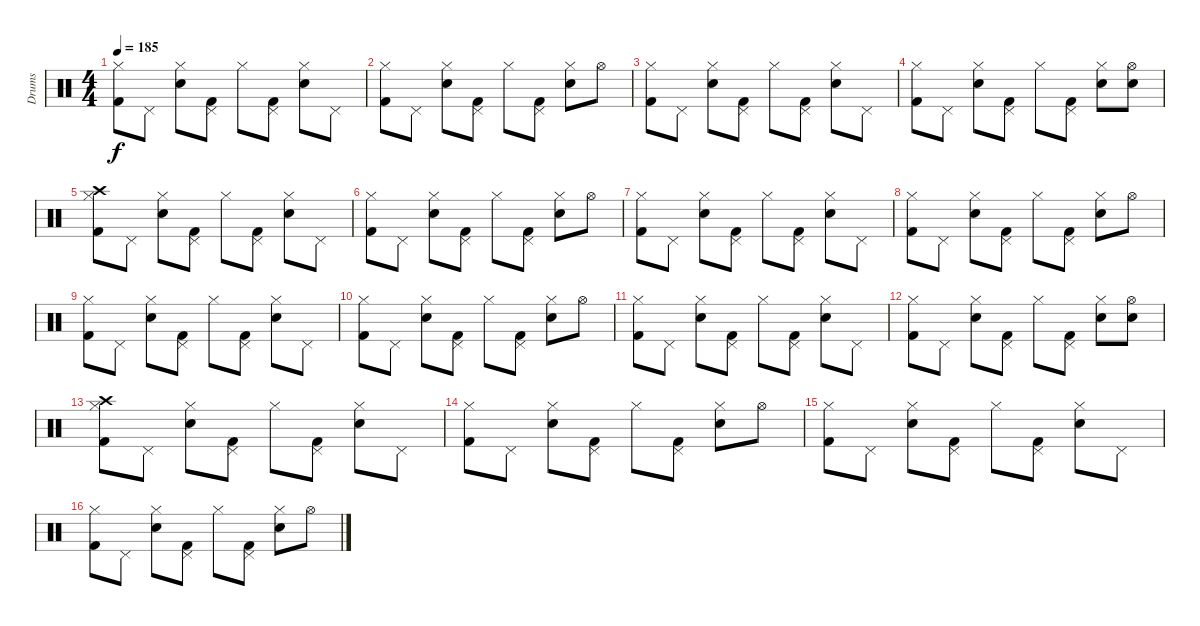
\track ("Drums" "Drums") {instrument percussion}
\staff {score}
\articulation defaults
\ts (4 4)
\tempo 185
\clef neutral
\ks c
("Kick (hit) 2" "Hi-Hat (closed)").8{dy f} "Pedal Hi-Hat (hit)".8 ("Electric Snare (hit)" "Hi-Hat (closed)").8 ("Kick (hit) 2" "Pedal Hi-Hat (hit)").8 "Hi-Hat (closed)".8 ("Kick (hit) 2" "Pedal Hi-Hat (hit)").8 ("Electric Snare (hit)" "Hi-Hat (closed)").8 "Pedal Hi-Hat (hit)".8 |
("Kick (hit) 2" "Hi-Hat (closed)").8 "Pedal Hi-Hat (hit)".8 ("Electric Snare (hit)" "Hi-Hat (closed)").8 ("Kick (hit) 2" "Pedal Hi-Hat (hit)").8 "Hi-Hat (closed)".8 ("Kick (hit) 2" "Pedal Hi-Hat (hit)").8 ("Electric Snare (hit)" "Hi-Hat (closed)").8 "Hi-Hat (open)".8 |
("Kick (hit) 2" "Hi-Hat (closed)").8 "Pedal Hi-Hat (hit)".8 ("Electric Snare (hit)" "Hi-Hat (closed)").8 ("Kick (hit) 2" "Pedal Hi-Hat (hit)").8 "Hi-Hat (closed)".8 ("Kick (hit) 2" "Pedal Hi-Hat (hit)").8 ("Electric Snare (hit)" "Hi-Hat (closed)").8 "Pedal Hi-Hat (hit)".8 |
("Kick (hit) 2" "Hi-Hat (closed)").8 "Pedal Hi-Hat (hit)".8 ("Electric Snare (hit)" "Hi-Hat (closed)").8 ("Kick (hit) 2" "Pedal Hi-Hat (hit)").8 "Hi-Hat (closed)".8 ("Kick (hit) 2" "Pedal Hi-Hat (hit)").8 ("Electric Snare (hit)" "Hi-Hat (closed)").8 ("Electric Snare (hit)" "Hi-Hat (open)").8 |
("Kick (hit) 2" "Crash high (hit)" "Hi-Hat (closed)").8 "Pedal Hi-Hat (hit)".8 ("Electric Snare (hit)" "Hi-Hat (closed)").8 ("Kick (hit) 2" "Pedal Hi-Hat (hit)").8 "Hi-Hat (closed)".8 ("Kick (hit) 2" "Pedal Hi-Hat (hit)").8 ("Electric Snare (hit)" "Hi-Hat (closed)").8 "Pedal Hi-Hat (hit)".8 |
("Kick (hit) 2" "Hi-Hat (closed)").8 "Pedal Hi-Hat (hit)".8 ("Electric Snare (hit)" "Hi-Hat (closed)").8 ("Kick (hit) 2" "Pedal Hi-Hat (hit)").8 "Hi-Hat (closed)".8 ("Kick (hit) 2" "Pedal Hi-Hat (hit)").8 ("Electric Snare (hit)" "Hi-Hat (closed)").8 "Hi-Hat (open)".8 |
("Kick (hit) 2" "Hi-Hat (closed)").8 "Pedal Hi-Hat (hit)".8 ("Electric Snare (hit)" "Hi-Hat (closed)").8 ("Kick (hit) 2" "Pedal Hi-Hat (hit)").8 "Hi-Hat (closed)".8 ("Kick (hit) 2" "Pedal Hi-Hat (hit)").8 ("Electric Snare (hit)" "Hi-Hat (closed)").8 "Pedal Hi-Hat (hit)".8 |
("Kick (hit) 2" "Hi-Hat (closed)").8 "Pedal Hi-Hat (hit)".8 ("Electric Snare (hit)" "Hi-Hat (closed)").8 ("Kick (hit) 2" "Pedal Hi-Hat (hit)").8 "Hi-Hat (closed)".8 ("Kick (hit) 2" "Pedal Hi-Hat (hit)").8 ("Electric Snare (hit)" "Hi-Hat (closed)").8 "Hi-Hat (open)".8 |
("Kick (hit) 2" "Hi-Hat (closed)").8 "Pedal Hi-Hat (hit)".8 ("Electric Snare (hit)" "Hi-Hat (closed)").8 ("Kick (hit) 2" "Pedal Hi-Hat (hit)").8 "Hi-Hat (closed)".8 ("Kick (hit) 2" "Pedal Hi-Hat (hit)").8 ("Electric Snare (hit)" "Hi-Hat (closed)").8 "Pedal Hi-Hat (hit)".8 |
("Kick (hit) 2" "Hi-Hat (closed)").8 "Pedal Hi-Hat (hit)".8 ("Electric Snare (hit)" "Hi-Hat (closed)").8 ("Kick (hit) 2" "Pedal Hi-Hat (hit)").8 "Hi-Hat (closed)".8 ("Kick (hit) 2" "Pedal Hi-Hat (hit)").8 ("Electric Snare (hit)" "Hi-Hat (closed)").8 "Hi-Hat (open)".8 |
("Kick (hit) 2" "Hi-Hat (closed)").8 "Pedal Hi-Hat (hit)".8 ("Electric Snare (hit)" "Hi-Hat (closed)").8 ("Kick (hit) 2" "Pedal Hi-Hat (hit)").8 "Hi-Hat (closed)".8 ("Kick (hit) 2" "Pedal Hi-Hat (hit)").8 ("Electric Snare (hit)" "Hi-Hat (closed)").8 "Pedal Hi-Hat (hit)".8 |
("Kick (hit) 2" "Hi-Hat (closed)").8 "Pedal Hi-Hat (hit)".8 ("Electric Snare (hit)" "Hi-Hat (closed)").8 ("Kick (hit) 2" "Pedal Hi-Hat (hit)").8 "Hi-Hat (closed)".8 ("Kick (hit) 2" "Pedal Hi-Hat (hit)").8 ("Electric Snare (hit)" "Hi-Hat (closed)").8 ("Electric Snare (hit)" "Hi-Hat (open)").8 |
("Kick (hit) 2" "Crash high (hit)" "Hi-Hat (closed)").8 "Pedal Hi-Hat (hit)".8 ("Electric Snare (hit)" "Hi-Hat (closed)").8 ("Kick (hit) 2" "Pedal Hi-Hat (hit)").8 "Hi-Hat (closed)".8 ("Kick (hit) 2" "Pedal Hi-Hat (hit)").8 ("Electric Snare (hit)" "Hi-Hat (closed)").8 "Pedal Hi-Hat (hit)".8 |
("Kick (hit) 2" "Hi-Hat (closed)").8 "Pedal Hi-Hat (hit)".8 ("Electric Snare (hit)" "Hi-Hat (closed)").8 ("Kick (hit) 2" "Pedal Hi-Hat (hit)").8 "Hi-Hat (closed)".8 ("Kick (hit) 2" "Pedal Hi-Hat (hit)").8 ("Electric Snare (hit)" "Hi-Hat (closed)").8 "Hi-Hat (open)".8 |
("Kick (hit) 2" "Hi-Hat (closed)").8 "Pedal Hi-Hat (hit)".8 ("Electric Snare (hit)" "Hi-Hat (closed)").8 ("Kick (hit) 2" "Pedal Hi-Hat (hit)").8 "Hi-Hat (closed)".8 ("Kick (hit) 2" "Pedal Hi-Hat (hit)").8 ("Electric Snare (hit)" "Hi-Hat (closed)").8 "Pedal Hi-Hat (hit)".8 |
("Kick (hit) 2" "Hi-Hat (closed)").8 "Pedal Hi-Hat (hit)".8 ("Electric Snare (hit)" "Hi-Hat (closed)").8 ("Kick (hit) 2" "Pedal Hi-Hat (hit)").8 "Hi-Hat (closed)".8 ("Kick (hit) 2" "Pedal Hi-Hat (hit)").8 ("Electric Snare (hit)" "Hi-Hat (closed)").8 "Hi-Hat (open)".8
